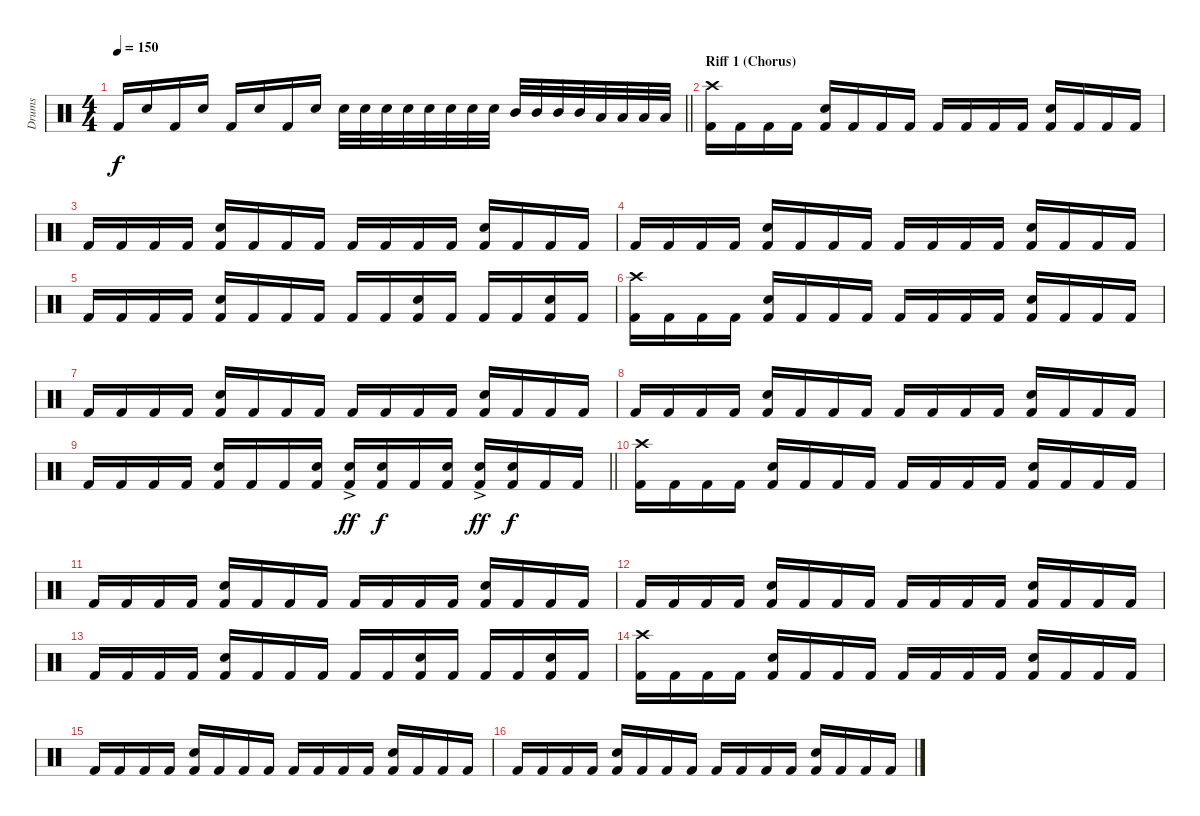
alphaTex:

\track ("Drums" "Drums") {instrument percussion}
\staff {score}
\articulation defaults
\ts (4 4)
\tempo 150
\clef neutral
\barLineRight lightlight
\ks c "Kick (hit) 2".16{dy f} "Snare (hit) 2".16 "Kick (hit) 2".16 "Snare (hit) 2".16 "Kick (hit) 2".16 "Snare (hit) 2".16 "Kick (hit) 2".16 "Snare (hit) 2".16 "Snare (hit) 2".32 "Snare (hit) 2".32 "Snare (hit) 2".32 "Snare (hit) 2".32 "Snare (hit) 2".32 "Snare (hit) 2".32 "Snare (hit) 2".32 "Snare (hit) 2".32 "Mid Tom (hit)".32 "Mid Tom (hit)".32 "Mid Tom (hit)".32 "Mid Tom (hit)".32 "Low Tom (hit)".32 "Low Tom (hit)".32 "Low Tom (hit)".32 "Low Tom (hit)".32
|
\section ("" "Riff 1 (Chorus)")
("Crash high (hit)" "Kick (hit) 2").16 "Kick (hit) 2".16 "Kick (hit) 2".16 "Kick (hit) 2".16 ("Snare (hit) 2" "Kick (hit) 2").16 "Kick (hit) 2".16 "Kick (hit) 2".16 "Kick (hit) 2".16 "Kick (hit) 2".16 "Kick (hit) 2".16 "Kick (hit) 2".16 "Kick (hit) 2".16 ("Snare (hit) 2" "Kick (hit) 2").16 "Kick (hit) 2".16 "Kick (hit) 2".16 "Kick (hit) 2".16 |
"Kick (hit) 2".16 "Kick (hit) 2".16 "Kick (hit) 2".16 "Kick (hit) 2".16 ("Snare (hit) 2" "Kick (hit) 2").16 "Kick (hit) 2".16 "Kick (hit) 2".16 "Kick (hit) 2".16 "Kick (hit) 2".16 "Kick (hit) 2".16 "Kick (hit) 2".16 "Kick (hit) 2".16 ("Snare (hit) 2" "Kick (hit) 2").16 "Kick (hit) 2".16 "Kick (hit) 2".16 "Kick (hit) 2".16 |
"Kick (hit) 2".16 "Kick (hit) 2".16 "Kick (hit) 2".16 "Kick (hit) 2".16 ("Snare (hit) 2" "Kick (hit) 2").16 "Kick (hit) 2".16 "Kick (hit) 2".16 "Kick (hit) 2".16 "Kick (hit) 2".16 "Kick (hit) 2".16 "Kick (hit) 2".16 "Kick (hit) 2".16 ("Snare (hit) 2" "Kick (hit) 2").16 "Kick (hit) 2".16 "Kick (hit) 2".16 "Kick (hit) 2".16 |
"Kick (hit) 2".16 "Kick (hit) 2".16 "Kick (hit) 2".16 "Kick (hit) 2".16 ("Snare (hit) 2" "Kick (hit) 2").16 "Kick (hit) 2".16 "Kick (hit) 2".16 "Kick (hit) 2".16 "Kick (hit) 2".16 "Kick (hit) 2".16 ("Snare (hit) 2" "Kick (hit) 2").16 "Kick (hit) 2".16 "Kick (hit) 2".16 "Kick (hit) 2".16 ("Snare (hit) 2" "Kick (hit) 2").16 "Kick (hit) 2".16 |
("Crash high (hit)" "Kick (hit) 2").16 "Kick (hit) 2".16 "Kick (hit) 2".16 "Kick (hit) 2".16 ("Snare (hit) 2" "Kick (hit) 2").16 "Kick (hit) 2".16 "Kick (hit) 2".16 "Kick (hit) 2".16 "Kick (hit) 2".16 "Kick (hit) 2".16 "Kick (hit) 2".16 "Kick (hit) 2".16 ("Snare (hit) 2" "Kick (hit) 2").16 "Kick (hit) 2".16 "Kick (hit) 2".16 "Kick (hit) 2".16 |
"Kick (hit) 2".16 "Kick (hit) 2".16 "Kick (hit) 2".16 "Kick (hit) 2".16 ("Snare (hit) 2" "Kick (hit) 2").16 "Kick (hit) 2".16 "Kick (hit) 2".16 "Kick (hit) 2".16 "Kick (hit) 2".16 "Kick (hit) 2".16 "Kick (hit) 2".16 "Kick (hit) 2".16 ("Snare (hit) 2" "Kick (hit) 2").16 "Kick (hit) 2".16 "Kick (hit) 2".16 "Kick (hit) 2".16 |
"Kick (hit) 2".16 "Kick (hit) 2".16 "Kick (hit) 2".16 "Kick (hit) 2".16 ("Snare (hit) 2" "Kick (hit) 2").16 "Kick (hit) 2".16 "Kick (hit) 2".16 "Kick (hit) 2".16 "Kick (hit) 2".16 "Kick (hit) 2".16 "Kick (hit) 2".16 "Kick (hit) 2".16 ("Snare (hit) 2" "Kick (hit) 2").16 "Kick (hit) 2".16 "Kick (hit) 2".16 "Kick (hit) 2".16 |
\barLineRight lightlight "Kick (hit) 2".16 "Kick (hit) 2".16 "Kick (hit) 2".16 "Kick (hit) 2".16
("Snare (hit) 2" "Kick (hit) 2").16 "Kick (hit) 2".16 "Kick (hit) 2".16 ("Snare (hit) 2" "Kick (hit) 2").16 ("Snare (hit) 2"{ac} "Kick (hit) 2").16{dy ff} ("Snare (hit) 2" "Kick (hit) 2").16{dy f} "Kick (hit) 2".16 ("Snare (hit) 2" "Kick (hit) 2").16 ("Snare (hit) 2"{ac} "Kick (hit) 2").16{dy ff} ("Snare (hit) 2" "Kick (hit) 2").16{dy f} "Kick (hit) 2".16 "Kick (hit) 2".16 |
("Crash high (hit)" "Kick (hit) 2").16 "Kick (hit) 2".16 "Kick (hit) 2".16 "Kick (hit) 2".16 ("Snare (hit) 2" "Kick (hit) 2").16 "Kick (hit) 2".16 "Kick (hit) 2".16 "Kick (hit) 2".16 "Kick (hit) 2".16 "Kick (hit) 2".16 "Kick (hit) 2".16 "Kick (hit) 2".16 ("Snare (hit) 2" "Kick (hit) 2").16 "Kick (hit) 2".16 "Kick (hit) 2".16 "Kick (hit) 2".16 |
"Kick (hit) 2".16 "Kick (hit) 2".16 "Kick (hit) 2".16 "Kick (hit) 2".16 ("Snare (hit) 2" "Kick (hit) 2").16 "Kick (hit) 2".16 "Kick (hit) 2".16 "Kick (hit) 2".16 "Kick (hit) 2".16 "Kick (hit) 2".16 "Kick (hit) 2".16 "Kick (hit) 2".16 ("Snare (hit) 2" "Kick (hit) 2").16 "Kick (hit) 2".16 "Kick (hit) 2".16 "Kick (hit) 2".16 |
"Kick (hit) 2".16 "Kick (hit) 2".16 "Kick (hit) 2".16 "Kick (hit) 2".16 ("Snare (hit) 2" "Kick (hit) 2").16 "Kick (hit) 2".16 "Kick (hit) 2".16 "Kick (hit) 2".16 "Kick (hit) 2".16 "Kick (hit) 2".16 "Kick (hit) 2".16 "Kick (hit) 2".16 ("Snare (hit) 2" "Kick (hit) 2").16 "Kick (hit) 2".16 "Kick (hit) 2".16 "Kick (hit) 2".16 |
"Kick (hit) 2".16 "Kick (hit) 2".16 "Kick (hit) 2".16 "Kick (hit) 2".16 ("Snare (hit) 2" "Kick (hit) 2").16 "Kick (hit) 2".16 "Kick (hit) 2".16 "Kick (hit) 2".16 "Kick (hit) 2".16 "Kick (hit) 2".16 ("Snare (hit) 2" "Kick (hit) 2").16 "Kick (hit) 2".16 "Kick (hit) 2".16 "Kick (hit) 2".16 ("Snare (hit) 2" "Kick (hit) 2").16 "Kick (hit) 2".16 |
("Crash high (hit)" "Kick (hit) 2").16 "Kick (hit) 2".16 "Kick (hit) 2".16 "Kick (hit) 2".16 ("Snare (hit) 2" "Kick (hit) 2").16 "Kick (hit) 2".16 "Kick (hit) 2".16 "Kick (hit) 2".16 "Kick (hit) 2".16 "Kick (hit) 2".16 "Kick (hit) 2".16 "Kick (hit) 2".16 ("Snare (hit) 2" "Kick (hit) 2").16 "Kick (hit) 2".16 "Kick (hit) 2".16 "Kick (hit) 2".16 |
"Kick (hit) 2".16 "Kick (hit) 2".16 "Kick (hit) 2".16 "Kick (hit) 2".16 ("Snare (hit) 2" "Kick (hit) 2").16 "Kick (hit) 2".16 "Kick (hit) 2".16 "Kick (hit) 2".16 "Kick (hit) 2".16 "Kick (hit) 2".16 "Kick (hit) 2".16 "Kick (hit) 2".16 ("Snare (hit) 2" "Kick (hit) 2").16 "Kick (hit) 2".16 "Kick (hit) 2".16 "Kick (hit) 2".16 |
"Kick (hit) 2".16 "Kick (hit) 2".16 "Kick (hit) 2".16 "Kick (hit) 2".16 ("Snare (hit) 2" "Kick (hit) 2").16 "Kick (hit) 2".16 "Kick (hit) 2".16 "Kick (hit) 2".16 "Kick (hit) 2".16 "Kick (hit) 2".16 "Kick (hit) 2".16 "Kick (hit) 2".16 ("Snare (hit) 2" "Kick (hit) 2").16 "Kick (hit) 2".16 "Kick (hit) 2".16 "Kick (hit) 2".16
